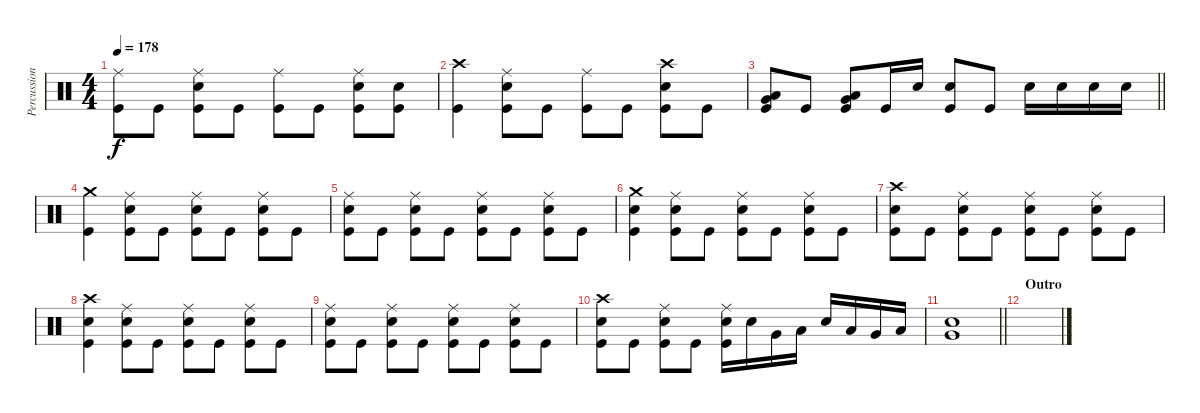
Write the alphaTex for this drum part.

\track ("Percussion" "Percussion") {instrument percussion}
\staff {score}
\articulation defaults
\ts (4 4)
\tempo 178
\clef neutral
\ks c
("Ride (middle)" "Kick (hit)").8{dy f} "Kick (hit)".8 ("Ride (middle)" "Electric Snare (hit)" "Kick (hit)").8 "Kick (hit)".8 ("Ride (middle)" "Kick (hit)").8 "Kick (hit)".8 ("Ride (middle)" "Electric Snare (hit)" "Kick (hit)").8 ("Electric Snare (hit)" "Kick (hit)").8 |
("Crash high (hit)" "Kick (hit)").4 ("Ride (middle)" "Electric Snare (hit)" "Kick (hit)").8 "Kick (hit)".8 ("Ride (middle)" "Kick (hit)").8 "Kick (hit)".8 ("Crash high (hit)" "Electric Snare (hit)" "Kick (hit)").8 "Kick (hit)".8 |
\barLineRight lightlight
("Low Tom (hit)" "Very Low Tom (hit)" "Kick (hit)").8 "Kick (hit)".8 ("Very Low Tom (hit)" "Low Floor Tom (hit)" "Kick (hit)").8 "Kick (hit)".16 "Electric Snare (hit)".16 ("Electric Snare (hit)" "Kick (hit)").8 "Kick (hit)".8 "Electric Snare (hit)".16 "Electric Snare (hit)".16 "Electric Snare (hit)".16 "Electric Snare (hit)".16 |
("Crash medium (hit)" "Kick (hit)").4 ("Ride (middle)" "Electric Snare (hit)" "Kick (hit)").8 "Kick (hit)".8 ("Ride (middle)" "Electric Snare (hit)" "Kick (hit)").8 "Kick (hit)".8 ("Ride (middle)" "Electric Snare (hit)" "Kick (hit)").8 "Kick (hit)".8 |
("Ride (middle)" "Electric Snare (hit)" "Kick (hit)").8 "Kick (hit)".8 ("Ride (middle)" "Electric Snare (hit)" "Kick (hit)").8 "Kick (hit)".8 ("Ride (middle)" "Electric Snare (hit)" "Kick (hit)").8 "Kick (hit)".8 ("Ride (middle)" "Electric Snare (hit)" "Kick (hit)").8 "Kick (hit)".8 |
("Crash medium (hit)" "Electric Snare (hit)" "Kick (hit)").4 ("Ride (middle)" "Electric Snare (hit)" "Kick (hit)").8 "Kick (hit)".8 ("Ride (middle)" "Electric Snare (hit)" "Kick (hit)").8 "Kick (hit)".8 ("Ride (middle)" "Electric Snare (hit)" "Kick (hit)").8 "Kick (hit)".8 |
("Crash high (hit)" "Electric Snare (hit)" "Kick (hit)").8 "Kick (hit)".8 ("Ride (middle)" "Electric Snare (hit)" "Kick (hit)").8 "Kick (hit)".8 ("Ride (middle)" "Electric Snare (hit)" "Kick (hit)").8 "Kick (hit)".8 ("Ride (middle)" "Electric Snare (hit)" "Kick (hit)").8 "Kick (hit)".8 |
("Crash high (hit)" "Electric Snare (hit)" "Kick (hit)").4 ("Ride (middle)" "Electric Snare (hit)" "Kick (hit)").8 "Kick (hit)".8 ("Ride (middle)" "Electric Snare (hit)" "Kick (hit)").8 "Kick (hit)".8 ("Ride (middle)" "Electric Snare (hit)" "Kick (hit)").8 "Kick (hit)".8 |
("Ride (middle)" "Electric Snare (hit)" "Kick (hit)").8 "Kick (hit)".8 ("Ride (middle)" "Electric Snare (hit)" "Kick (hit)").8 "Kick (hit)".8 ("Ride (middle)" "Electric Snare (hit)" "Kick (hit)").8 "Kick (hit)".8 ("Ride (middle)" "Electric Snare (hit)" "Kick (hit)").8 "Kick (hit)".8 |
("Crash high (hit)" "Electric Snare (hit)" "Kick (hit)").8 "Kick (hit)".8 ("Ride (middle)" "Electric Snare (hit)" "Kick (hit)").8 "Kick (hit)".8 ("Ride (middle)" "Electric Snare (hit)" "Kick (hit)").16 "Electric Snare (hit)".16 "Very Low Tom (hit)".16 "Low Floor Tom (hit)".16 "Electric Snare (hit)".16 "Low Tom (hit)".16 "Very Low Tom (hit)".16 "Low Floor Tom (hit)".16 |
\barLineRight lightlight
("Electric Snare (hit)" "Very Low Tom (hit)").1 |
\section ("" "Outro")
